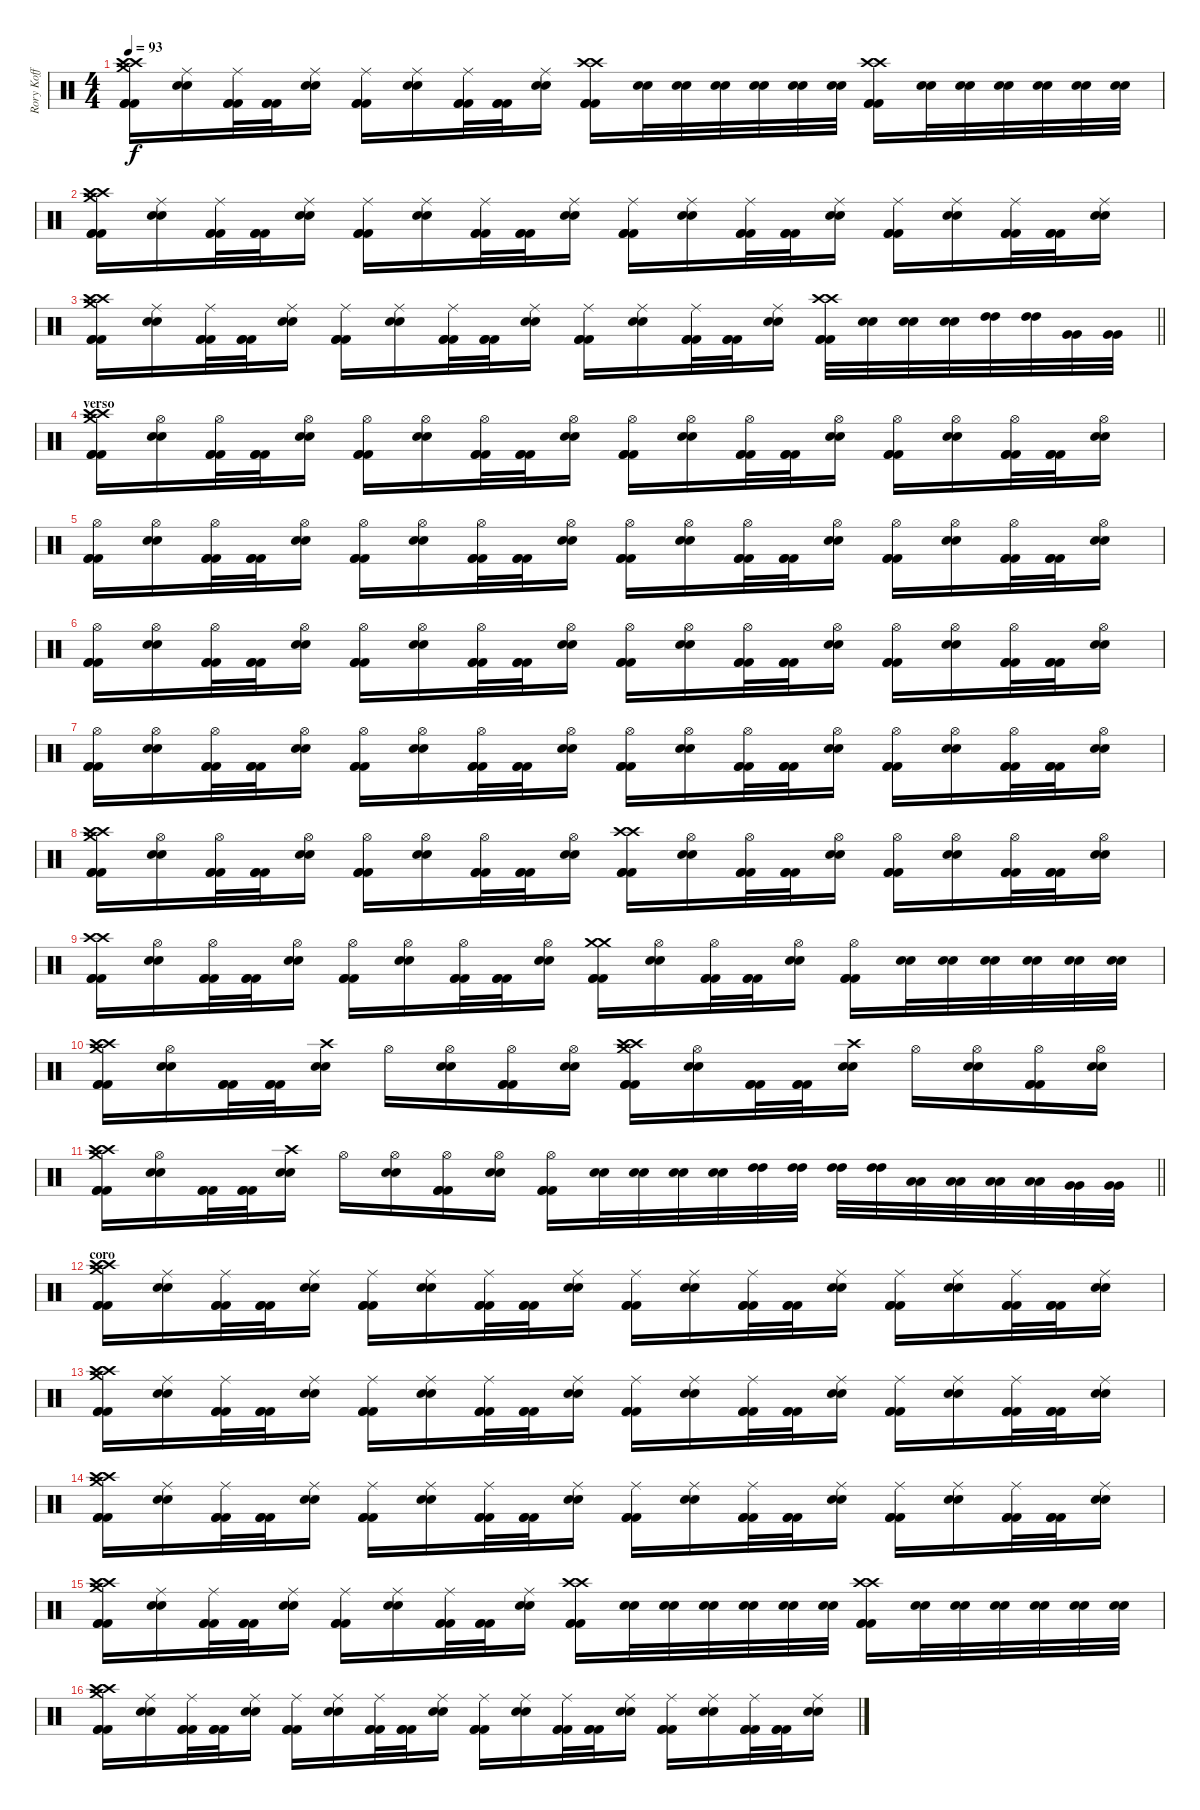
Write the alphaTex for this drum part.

\track ("Rory Koff" "Rory Koff") {instrument percussion}
\staff {score}
\articulation defaults
\ts (4 4)
\tempo 93
\clef neutral
\ks c
("Crash high (hit)" "Crash medium (hit)" "Crash high (hit)" "Kick (hit) 2" "Kick (hit) 2" "Kick (hit) 2").16{dy f} ("Ride (middle)" "Electric Snare (hit)" "Electric Snare (hit)").16 ("Ride (middle)" "Kick (hit) 2" "Kick (hit) 2" "Kick (hit) 2").32 ("Kick (hit) 2" "Kick (hit) 2" "Kick (hit) 2").32 ("Ride (middle)" "Electric Snare (hit)" "Electric Snare (hit)").16 ("Ride (middle)" "Kick (hit) 2" "Kick (hit) 2" "Kick (hit) 2").16 ("Ride (middle)" "Electric Snare (hit)" "Electric Snare (hit)").16 ("Ride (middle)" "Kick (hit) 2" "Kick (hit) 2" "Kick (hit) 2").32 ("Kick (hit) 2" "Kick (hit) 2" "Kick (hit) 2").32 ("Ride (middle)" "Electric Snare (hit)" "Electric Snare (hit)").16 ("Crash high (hit)" "Crash high (hit)" "Kick (hit) 2" "Kick (hit) 2" "Kick (hit) 2").16 ("Electric Snare (hit)" "Electric Snare (hit)").32 ("Electric Snare (hit)" "Electric Snare (hit)").32 ("Electric Snare (hit)" "Electric Snare (hit)").32 ("Electric Snare (hit)" "Electric Snare (hit)").32 ("Electric Snare (hit)" "Electric Snare (hit)").32 ("Electric Snare (hit)" "Electric Snare (hit)").32 ("Crash high (hit)" "Crash high (hit)" "Kick (hit) 2" "Kick (hit) 2" "Kick (hit) 2").16 ("Electric Snare (hit)" "Electric Snare (hit)").32 ("Electric Snare (hit)" "Electric Snare (hit)").32 ("Electric Snare (hit)" "Electric Snare (hit)").32 ("Electric Snare (hit)" "Electric Snare (hit)").32 ("Electric Snare (hit)" "Electric Snare (hit)").32 ("Electric Snare (hit)" "Electric Snare (hit)").32 |
("Crash high (hit)" "Crash medium (hit)" "Crash high (hit)" "Kick (hit) 2" "Kick (hit) 2" "Kick (hit) 2").16 ("Ride (middle)" "Electric Snare (hit)" "Electric Snare (hit)").16 ("Ride (middle)" "Kick (hit) 2" "Kick (hit) 2" "Kick (hit) 2").32 ("Kick (hit) 2" "Kick (hit) 2" "Kick (hit) 2").32 ("Ride (middle)" "Electric Snare (hit)" "Electric Snare (hit)").16 ("Ride (middle)" "Kick (hit) 2" "Kick (hit) 2" "Kick (hit) 2").16 ("Ride (middle)" "Electric Snare (hit)" "Electric Snare (hit)").16 ("Ride (middle)" "Kick (hit) 2" "Kick (hit) 2" "Kick (hit) 2").32 ("Kick (hit) 2" "Kick (hit) 2" "Kick (hit) 2").32 ("Ride (middle)" "Electric Snare (hit)" "Electric Snare (hit)").16 ("Ride (middle)" "Kick (hit) 2" "Kick (hit) 2" "Kick (hit) 2").16 ("Ride (middle)" "Electric Snare (hit)" "Electric Snare (hit)").16 ("Ride (middle)" "Kick (hit) 2" "Kick (hit) 2" "Kick (hit) 2").32 ("Kick (hit) 2" "Kick (hit) 2" "Kick (hit) 2").32 ("Ride (middle)" "Electric Snare (hit)" "Electric Snare (hit)").16 ("Ride (middle)" "Kick (hit) 2" "Kick (hit) 2" "Kick (hit) 2").16 ("Ride (middle)" "Electric Snare (hit)" "Electric Snare (hit)").16 ("Ride (middle)" "Kick (hit) 2" "Kick (hit) 2" "Kick (hit) 2").32 ("Kick (hit) 2" "Kick (hit) 2" "Kick (hit) 2").32 ("Ride (middle)" "Electric Snare (hit)" "Electric Snare (hit)").16 |
\barLineRight lightlight
("Crash high (hit)" "Crash medium (hit)" "Crash high (hit)" "Kick (hit) 2" "Kick (hit) 2" "Kick (hit) 2").16 ("Ride (middle)" "Electric Snare (hit)" "Electric Snare (hit)").16 ("Ride (middle)" "Kick (hit) 2" "Kick (hit) 2" "Kick (hit) 2").32 ("Kick (hit) 2" "Kick (hit) 2" "Kick (hit) 2").32 ("Ride (middle)" "Electric Snare (hit)" "Electric Snare (hit)").16 ("Ride (middle)" "Kick (hit) 2" "Kick (hit) 2" "Kick (hit) 2").16 ("Ride (middle)" "Electric Snare (hit)" "Electric Snare (hit)").16 ("Ride (middle)" "Kick (hit) 2" "Kick (hit) 2" "Kick (hit) 2").32 ("Kick (hit) 2" "Kick (hit) 2" "Kick (hit) 2").32 ("Ride (middle)" "Electric Snare (hit)" "Electric Snare (hit)").16 ("Ride (middle)" "Kick (hit) 2" "Kick (hit) 2" "Kick (hit) 2").16 ("Ride (middle)" "Electric Snare (hit)" "Electric Snare (hit)").16 ("Ride (middle)" "Kick (hit) 2" "Kick (hit) 2" "Kick (hit) 2").32 ("Kick (hit) 2" "Kick (hit) 2" "Kick (hit) 2").32 ("Ride (middle)" "Electric Snare (hit)" "Electric Snare (hit)").16 ("Crash high (hit)" "Crash high (hit)" "Kick (hit) 2" "Kick (hit) 2" "Kick (hit) 2").32 ("Electric Snare (hit)" "Electric Snare (hit)").32 ("Electric Snare (hit)" "Electric Snare (hit)").32 ("Electric Snare (hit)" "Electric Snare (hit)").32 ("High Tom (hit)" "High Tom (hit)").32 ("High Tom (hit)" "High Tom (hit)").32 ("Very Low Tom (hit)" "Very Low Tom (hit)").32 ("Very Low Tom (hit)" "Very Low Tom (hit)").32 |
\section ("" "verso ")
("Crash high (hit)" "Crash medium (hit)" "Crash high (hit)" "Kick (hit) 2" "Kick (hit) 2" "Kick (hit) 2").16 ("Hi-Hat (open)" "Electric Snare (hit)" "Electric Snare (hit)").16 ("Hi-Hat (open)" "Kick (hit) 2" "Kick (hit) 2" "Kick (hit) 2").32 ("Kick (hit) 2" "Kick (hit) 2" "Kick (hit) 2").32 ("Hi-Hat (open)" "Electric Snare (hit)" "Electric Snare (hit)").16 ("Hi-Hat (open)" "Kick (hit) 2" "Kick (hit) 2" "Kick (hit) 2").16 ("Hi-Hat (open)" "Electric Snare (hit)" "Electric Snare (hit)").16 ("Hi-Hat (open)" "Kick (hit) 2" "Kick (hit) 2" "Kick (hit) 2").32 ("Kick (hit) 2" "Kick (hit) 2" "Kick (hit) 2").32 ("Hi-Hat (open)" "Electric Snare (hit)" "Electric Snare (hit)").16 ("Hi-Hat (open)" "Kick (hit) 2" "Kick (hit) 2" "Kick (hit) 2").16 ("Hi-Hat (open)" "Electric Snare (hit)" "Electric Snare (hit)").16 ("Hi-Hat (open)" "Kick (hit) 2" "Kick (hit) 2" "Kick (hit) 2").32 ("Kick (hit) 2" "Kick (hit) 2" "Kick (hit) 2").32 ("Hi-Hat (open)" "Electric Snare (hit)" "Electric Snare (hit)").16 ("Hi-Hat (open)" "Kick (hit) 2" "Kick (hit) 2" "Kick (hit) 2").16 ("Hi-Hat (open)" "Electric Snare (hit)" "Electric Snare (hit)").16 ("Hi-Hat (open)" "Kick (hit) 2" "Kick (hit) 2" "Kick (hit) 2").32 ("Kick (hit) 2" "Kick (hit) 2" "Kick (hit) 2").32 ("Hi-Hat (open)" "Electric Snare (hit)" "Electric Snare (hit)").16 |
("Hi-Hat (open)" "Kick (hit) 2" "Kick (hit) 2" "Kick (hit) 2").16 ("Hi-Hat (open)" "Electric Snare (hit)" "Electric Snare (hit)").16 ("Hi-Hat (open)" "Kick (hit) 2" "Kick (hit) 2" "Kick (hit) 2").32 ("Kick (hit) 2" "Kick (hit) 2" "Kick (hit) 2").32 ("Hi-Hat (open)" "Electric Snare (hit)" "Electric Snare (hit)").16 ("Hi-Hat (open)" "Kick (hit) 2" "Kick (hit) 2" "Kick (hit) 2").16 ("Hi-Hat (open)" "Electric Snare (hit)" "Electric Snare (hit)").16 ("Hi-Hat (open)" "Kick (hit) 2" "Kick (hit) 2" "Kick (hit) 2").32 ("Kick (hit) 2" "Kick (hit) 2" "Kick (hit) 2").32 ("Hi-Hat (open)" "Electric Snare (hit)" "Electric Snare (hit)").16 ("Hi-Hat (open)" "Kick (hit) 2" "Kick (hit) 2" "Kick (hit) 2").16 ("Hi-Hat (open)" "Electric Snare (hit)" "Electric Snare (hit)").16 ("Hi-Hat (open)" "Kick (hit) 2" "Kick (hit) 2" "Kick (hit) 2").32 ("Kick (hit) 2" "Kick (hit) 2" "Kick (hit) 2").32 ("Hi-Hat (open)" "Electric Snare (hit)" "Electric Snare (hit)").16 ("Hi-Hat (open)" "Kick (hit) 2" "Kick (hit) 2" "Kick (hit) 2").16 ("Hi-Hat (open)" "Electric Snare (hit)" "Electric Snare (hit)").16 ("Hi-Hat (open)" "Kick (hit) 2" "Kick (hit) 2" "Kick (hit) 2").32 ("Kick (hit) 2" "Kick (hit) 2" "Kick (hit) 2").32 ("Hi-Hat (open)" "Electric Snare (hit)" "Electric Snare (hit)").16 |
("Hi-Hat (open)" "Kick (hit) 2" "Kick (hit) 2" "Kick (hit) 2").16 ("Hi-Hat (open)" "Electric Snare (hit)" "Electric Snare (hit)").16 ("Hi-Hat (open)" "Kick (hit) 2" "Kick (hit) 2" "Kick (hit) 2").32 ("Kick (hit) 2" "Kick (hit) 2" "Kick (hit) 2").32 ("Hi-Hat (open)" "Electric Snare (hit)" "Electric Snare (hit)").16 ("Hi-Hat (open)" "Kick (hit) 2" "Kick (hit) 2" "Kick (hit) 2").16 ("Hi-Hat (open)" "Electric Snare (hit)" "Electric Snare (hit)").16 ("Hi-Hat (open)" "Kick (hit) 2" "Kick (hit) 2" "Kick (hit) 2").32 ("Kick (hit) 2" "Kick (hit) 2" "Kick (hit) 2").32 ("Hi-Hat (open)" "Electric Snare (hit)" "Electric Snare (hit)").16 ("Hi-Hat (open)" "Kick (hit) 2" "Kick (hit) 2" "Kick (hit) 2").16 ("Hi-Hat (open)" "Electric Snare (hit)" "Electric Snare (hit)").16 ("Hi-Hat (open)" "Kick (hit) 2" "Kick (hit) 2" "Kick (hit) 2").32 ("Kick (hit) 2" "Kick (hit) 2" "Kick (hit) 2").32 ("Hi-Hat (open)" "Electric Snare (hit)" "Electric Snare (hit)").16 ("Hi-Hat (open)" "Kick (hit) 2" "Kick (hit) 2" "Kick (hit) 2").16 ("Hi-Hat (open)" "Electric Snare (hit)" "Electric Snare (hit)").16 ("Hi-Hat (open)" "Kick (hit) 2" "Kick (hit) 2" "Kick (hit) 2").32 ("Kick (hit) 2" "Kick (hit) 2" "Kick (hit) 2").32 ("Hi-Hat (open)" "Electric Snare (hit)" "Electric Snare (hit)").16 |
("Hi-Hat (open)" "Kick (hit) 2" "Kick (hit) 2" "Kick (hit) 2").16 ("Hi-Hat (open)" "Electric Snare (hit)" "Electric Snare (hit)").16 ("Hi-Hat (open)" "Kick (hit) 2" "Kick (hit) 2" "Kick (hit) 2").32 ("Kick (hit) 2" "Kick (hit) 2" "Kick (hit) 2").32 ("Hi-Hat (open)" "Electric Snare (hit)" "Electric Snare (hit)").16 ("Hi-Hat (open)" "Kick (hit) 2" "Kick (hit) 2" "Kick (hit) 2").16 ("Hi-Hat (open)" "Electric Snare (hit)" "Electric Snare (hit)").16 ("Hi-Hat (open)" "Kick (hit) 2" "Kick (hit) 2" "Kick (hit) 2").32 ("Kick (hit) 2" "Kick (hit) 2" "Kick (hit) 2").32 ("Hi-Hat (open)" "Electric Snare (hit)" "Electric Snare (hit)").16 ("Hi-Hat (open)" "Kick (hit) 2" "Kick (hit) 2" "Kick (hit) 2").16 ("Hi-Hat (open)" "Electric Snare (hit)" "Electric Snare (hit)").16 ("Hi-Hat (open)" "Kick (hit) 2" "Kick (hit) 2" "Kick (hit) 2").32 ("Kick (hit) 2" "Kick (hit) 2" "Kick (hit) 2").32 ("Hi-Hat (open)" "Electric Snare (hit)" "Electric Snare (hit)").16 ("Hi-Hat (open)" "Kick (hit) 2" "Kick (hit) 2" "Kick (hit) 2").16 ("Hi-Hat (open)" "Electric Snare (hit)" "Electric Snare (hit)").16 ("Hi-Hat (open)" "Kick (hit) 2" "Kick (hit) 2" "Kick (hit) 2").32 ("Kick (hit) 2" "Kick (hit) 2" "Kick (hit) 2").32 ("Hi-Hat (open)" "Electric Snare (hit)" "Electric Snare (hit)").16 |
("Crash medium (hit)" "Crash high (hit)" "Crash high (hit)" "Kick (hit) 2" "Kick (hit) 2" "Kick (hit) 2").16 ("Hi-Hat (open)" "Electric Snare (hit)" "Electric Snare (hit)").16 ("Hi-Hat (open)" "Kick (hit) 2" "Kick (hit) 2" "Kick (hit) 2").32 ("Kick (hit) 2" "Kick (hit) 2" "Kick (hit) 2").32 ("Hi-Hat (open)" "Electric Snare (hit)" "Electric Snare (hit)").16 ("Hi-Hat (open)" "Kick (hit) 2" "Kick (hit) 2" "Kick (hit) 2").16 ("Hi-Hat (open)" "Electric Snare (hit)" "Electric Snare (hit)").16 ("Hi-Hat (open)" "Kick (hit) 2" "Kick (hit) 2" "Kick (hit) 2").32 ("Kick (hit) 2" "Kick (hit) 2" "Kick (hit) 2").32 ("Hi-Hat (open)" "Electric Snare (hit)" "Electric Snare (hit)").16 ("Crash high (hit)" "Crash high (hit)" "Kick (hit) 2" "Kick (hit) 2" "Kick (hit) 2").16 ("Hi-Hat (open)" "Electric Snare (hit)" "Electric Snare (hit)").16 ("Hi-Hat (open)" "Kick (hit) 2" "Kick (hit) 2" "Kick (hit) 2").32 ("Kick (hit) 2" "Kick (hit) 2" "Kick (hit) 2").32 ("Hi-Hat (open)" "Electric Snare (hit)" "Electric Snare (hit)").16 ("Hi-Hat (open)" "Kick (hit) 2" "Kick (hit) 2" "Kick (hit) 2").16 ("Hi-Hat (open)" "Electric Snare (hit)" "Electric Snare (hit)").16 ("Hi-Hat (open)" "Kick (hit) 2" "Kick (hit) 2" "Kick (hit) 2").32 ("Kick (hit) 2" "Kick (hit) 2" "Kick (hit) 2").32 ("Hi-Hat (open)" "Electric Snare (hit)" "Electric Snare (hit)").16 |
("Crash high (hit)" "Crash high (hit)" "Kick (hit) 2" "Kick (hit) 2" "Kick (hit) 2").16 ("Hi-Hat (open)" "Electric Snare (hit)" "Electric Snare (hit)").16 ("Hi-Hat (open)" "Kick (hit) 2" "Kick (hit) 2" "Kick (hit) 2").32 ("Kick (hit) 2" "Kick (hit) 2" "Kick (hit) 2").32 ("Hi-Hat (open)" "Electric Snare (hit)" "Electric Snare (hit)").16 ("Hi-Hat (open)" "Kick (hit) 2" "Kick (hit) 2" "Kick (hit) 2").16 ("Hi-Hat (open)" "Electric Snare (hit)" "Electric Snare (hit)").16 ("Hi-Hat (open)" "Kick (hit) 2" "Kick (hit) 2" "Kick (hit) 2").32 ("Kick (hit) 2" "Kick (hit) 2" "Kick (hit) 2").32 ("Hi-Hat (open)" "Electric Snare (hit)" "Electric Snare (hit)").16 ("Crash medium (hit)" "Crash medium (hit)" "Kick (hit) 2" "Kick (hit) 2" "Kick (hit) 2").16 ("Hi-Hat (open)" "Electric Snare (hit)" "Electric Snare (hit)").16 ("Hi-Hat (open)" "Kick (hit) 2" "Kick (hit) 2" "Kick (hit) 2").32 ("Kick (hit) 2" "Kick (hit) 2" "Kick (hit) 2").32 ("Hi-Hat (open)" "Electric Snare (hit)" "Electric Snare (hit)").16 ("Hi-Hat (open)" "Kick (hit) 2" "Kick (hit) 2" "Kick (hit) 2").16 ("Electric Snare (hit)" "Electric Snare (hit)").32 ("Electric Snare (hit)" "Electric Snare (hit)").32 ("Electric Snare (hit)" "Electric Snare (hit)").32 ("Electric Snare (hit)" "Electric Snare (hit)").32 ("Electric Snare (hit)" "Electric Snare (hit)").32 ("Electric Snare (hit)" "Electric Snare (hit)").32 |
("Crash high (hit)" "Crash medium (hit)" "Crash high (hit)" "Kick (hit) 2" "Kick (hit) 2" "Kick (hit) 2").16 ("Hi-Hat (open)" "Electric Snare (hit)" "Electric Snare (hit)").16 ("Kick (hit) 2" "Kick (hit) 2" "Kick (hit) 2").32 ("Kick (hit) 2" "Kick (hit) 2" "Kick (hit) 2").32 ("Crash high (hit)" "Electric Snare (hit)" "Electric Snare (hit)").16 "Hi-Hat (open)".16 ("Hi-Hat (open)" "Electric Snare (hit)" "Electric Snare (hit)").16 ("Hi-Hat (open)" "Kick (hit) 2" "Kick (hit) 2" "Kick (hit) 2").16 ("Hi-Hat (open)" "Electric Snare (hit)" "Electric Snare (hit)").16 ("Crash high (hit)" "Crash medium (hit)" "Crash high (hit)" "Kick (hit) 2" "Kick (hit) 2" "Kick (hit) 2").16 ("Hi-Hat (open)" "Electric Snare (hit)" "Electric Snare (hit)").16 ("Kick (hit) 2" "Kick (hit) 2" "Kick (hit) 2").32 ("Kick (hit) 2" "Kick (hit) 2" "Kick (hit) 2").32 ("Crash high (hit)" "Electric Snare (hit)" "Electric Snare (hit)").16 "Hi-Hat (open)".16 ("Hi-Hat (open)" "Electric Snare (hit)" "Electric Snare (hit)").16 ("Hi-Hat (open)" "Kick (hit) 2" "Kick (hit) 2" "Kick (hit) 2").16 ("Hi-Hat (open)" "Electric Snare (hit)" "Electric Snare (hit)").16 |
\barLineRight lightlight
("Crash high (hit)" "Crash medium (hit)" "Crash high (hit)" "Kick (hit) 2" "Kick (hit) 2" "Kick (hit) 2").16 ("Hi-Hat (open)" "Electric Snare (hit)" "Electric Snare (hit)").16 ("Kick (hit) 2" "Kick (hit) 2" "Kick (hit) 2").32 ("Kick (hit) 2" "Kick (hit) 2" "Kick (hit) 2").32 ("Crash high (hit)" "Electric Snare (hit)" "Electric Snare (hit)").16 "Hi-Hat (open)".16 ("Hi-Hat (open)" "Electric Snare (hit)" "Electric Snare (hit)").16 ("Hi-Hat (open)" "Kick (hit) 2" "Kick (hit) 2" "Kick (hit) 2").16 ("Hi-Hat (open)" "Electric Snare (hit)" "Electric Snare (hit)").16 ("Hi-Hat (open)" "Kick (hit) 2" "Kick (hit) 2" "Kick (hit) 2").16 ("Electric Snare (hit)" "Electric Snare (hit)").32 ("Electric Snare (hit)" "Electric Snare (hit)").32 ("Electric Snare (hit)" "Electric Snare (hit)").32 ("Electric Snare (hit)" "Electric Snare (hit)").32 ("High Tom (hit)" "High Tom (hit)").32 ("High Tom (hit)" "High Tom (hit)").32 ("High Tom (hit)" "High Tom (hit)").32 ("High Tom (hit)" "High Tom (hit)").32 ("Low Tom (hit)" "Low Tom (hit)").32 ("Low Tom (hit)" "Low Tom (hit)").32 ("Low Tom (hit)" "Low Tom (hit)").32 ("Low Tom (hit)" "Low Tom (hit)").32 ("Very Low Tom (hit)" "Very Low Tom (hit)").32 ("Very Low Tom (hit)" "Very Low Tom (hit)").32 |
\section ("" "coro")
("Crash high (hit)" "Crash medium (hit)" "Crash high (hit)" "Kick (hit) 2" "Kick (hit) 2" "Kick (hit) 2").16 ("Ride (middle)" "Electric Snare (hit)" "Electric Snare (hit)").16 ("Ride (middle)" "Kick (hit) 2" "Kick (hit) 2" "Kick (hit) 2").32 ("Kick (hit) 2" "Kick (hit) 2" "Kick (hit) 2").32 ("Ride (middle)" "Electric Snare (hit)" "Electric Snare (hit)").16 ("Ride (middle)" "Kick (hit) 2" "Kick (hit) 2" "Kick (hit) 2").16 ("Ride (middle)" "Electric Snare (hit)" "Electric Snare (hit)").16 ("Ride (middle)" "Kick (hit) 2" "Kick (hit) 2" "Kick (hit) 2").32 ("Kick (hit) 2" "Kick (hit) 2" "Kick (hit) 2").32 ("Ride (middle)" "Electric Snare (hit)" "Electric Snare (hit)").16 ("Ride (middle)" "Kick (hit) 2" "Kick (hit) 2" "Kick (hit) 2").16 ("Ride (middle)" "Electric Snare (hit)" "Electric Snare (hit)").16 ("Ride (middle)" "Kick (hit) 2" "Kick (hit) 2" "Kick (hit) 2").32 ("Kick (hit) 2" "Kick (hit) 2" "Kick (hit) 2").32 ("Ride (middle)" "Electric Snare (hit)" "Electric Snare (hit)").16 ("Ride (middle)" "Kick (hit) 2" "Kick (hit) 2" "Kick (hit) 2").16 ("Ride (middle)" "Electric Snare (hit)" "Electric Snare (hit)").16 ("Ride (middle)" "Kick (hit) 2" "Kick (hit) 2" "Kick (hit) 2").32 ("Kick (hit) 2" "Kick (hit) 2" "Kick (hit) 2").32 ("Ride (middle)" "Electric Snare (hit)" "Electric Snare (hit)").16 |
("Crash high (hit)" "Crash medium (hit)" "Crash high (hit)" "Kick (hit) 2" "Kick (hit) 2" "Kick (hit) 2").16 ("Ride (middle)" "Electric Snare (hit)" "Electric Snare (hit)").16 ("Ride (middle)" "Kick (hit) 2" "Kick (hit) 2" "Kick (hit) 2").32 ("Kick (hit) 2" "Kick (hit) 2" "Kick (hit) 2").32 ("Ride (middle)" "Electric Snare (hit)" "Electric Snare (hit)").16 ("Ride (middle)" "Kick (hit) 2" "Kick (hit) 2" "Kick (hit) 2").16 ("Ride (middle)" "Electric Snare (hit)" "Electric Snare (hit)").16 ("Ride (middle)" "Kick (hit) 2" "Kick (hit) 2" "Kick (hit) 2").32 ("Kick (hit) 2" "Kick (hit) 2" "Kick (hit) 2").32 ("Ride (middle)" "Electric Snare (hit)" "Electric Snare (hit)").16 ("Ride (middle)" "Kick (hit) 2" "Kick (hit) 2" "Kick (hit) 2").16 ("Ride (middle)" "Electric Snare (hit)" "Electric Snare (hit)").16 ("Ride (middle)" "Kick (hit) 2" "Kick (hit) 2" "Kick (hit) 2").32 ("Kick (hit) 2" "Kick (hit) 2" "Kick (hit) 2").32 ("Ride (middle)" "Electric Snare (hit)" "Electric Snare (hit)").16 ("Ride (middle)" "Kick (hit) 2" "Kick (hit) 2" "Kick (hit) 2").16 ("Ride (middle)" "Electric Snare (hit)" "Electric Snare (hit)").16 ("Ride (middle)" "Kick (hit) 2" "Kick (hit) 2" "Kick (hit) 2").32 ("Kick (hit) 2" "Kick (hit) 2" "Kick (hit) 2").32 ("Ride (middle)" "Electric Snare (hit)" "Electric Snare (hit)").16 |
("Crash high (hit)" "Crash medium (hit)" "Crash high (hit)" "Kick (hit) 2" "Kick (hit) 2" "Kick (hit) 2").16 ("Ride (middle)" "Electric Snare (hit)" "Electric Snare (hit)").16 ("Ride (middle)" "Kick (hit) 2" "Kick (hit) 2" "Kick (hit) 2").32 ("Kick (hit) 2" "Kick (hit) 2" "Kick (hit) 2").32 ("Ride (middle)" "Electric Snare (hit)" "Electric Snare (hit)").16 ("Ride (middle)" "Kick (hit) 2" "Kick (hit) 2" "Kick (hit) 2").16 ("Ride (middle)" "Electric Snare (hit)" "Electric Snare (hit)").16 ("Ride (middle)" "Kick (hit) 2" "Kick (hit) 2" "Kick (hit) 2").32 ("Kick (hit) 2" "Kick (hit) 2" "Kick (hit) 2").32 ("Ride (middle)" "Electric Snare (hit)" "Electric Snare (hit)").16 ("Ride (middle)" "Kick (hit) 2" "Kick (hit) 2" "Kick (hit) 2").16 ("Ride (middle)" "Electric Snare (hit)" "Electric Snare (hit)").16 ("Ride (middle)" "Kick (hit) 2" "Kick (hit) 2" "Kick (hit) 2").32 ("Kick (hit) 2" "Kick (hit) 2" "Kick (hit) 2").32 ("Ride (middle)" "Electric Snare (hit)" "Electric Snare (hit)").16 ("Ride (middle)" "Kick (hit) 2" "Kick (hit) 2" "Kick (hit) 2").16 ("Ride (middle)" "Electric Snare (hit)" "Electric Snare (hit)").16 ("Ride (middle)" "Kick (hit) 2" "Kick (hit) 2" "Kick (hit) 2").32 ("Kick (hit) 2" "Kick (hit) 2" "Kick (hit) 2").32 ("Ride (middle)" "Electric Snare (hit)" "Electric Snare (hit)").16 |
("Crash high (hit)" "Crash medium (hit)" "Crash high (hit)" "Kick (hit) 2" "Kick (hit) 2" "Kick (hit) 2").16 ("Ride (middle)" "Electric Snare (hit)" "Electric Snare (hit)").16 ("Ride (middle)" "Kick (hit) 2" "Kick (hit) 2" "Kick (hit) 2").32 ("Kick (hit) 2" "Kick (hit) 2" "Kick (hit) 2").32 ("Ride (middle)" "Electric Snare (hit)" "Electric Snare (hit)").16 ("Ride (middle)" "Kick (hit) 2" "Kick (hit) 2" "Kick (hit) 2").16 ("Ride (middle)" "Electric Snare (hit)" "Electric Snare (hit)").16 ("Ride (middle)" "Kick (hit) 2" "Kick (hit) 2" "Kick (hit) 2").32 ("Kick (hit) 2" "Kick (hit) 2" "Kick (hit) 2").32 ("Ride (middle)" "Electric Snare (hit)" "Electric Snare (hit)").16 ("Crash high (hit)" "Crash high (hit)" "Kick (hit) 2" "Kick (hit) 2" "Kick (hit) 2").16 ("Electric Snare (hit)" "Electric Snare (hit)").32 ("Electric Snare (hit)" "Electric Snare (hit)").32 ("Electric Snare (hit)" "Electric Snare (hit)").32 ("Electric Snare (hit)" "Electric Snare (hit)").32 ("Electric Snare (hit)" "Electric Snare (hit)").32 ("Electric Snare (hit)" "Electric Snare (hit)").32 ("Crash high (hit)" "Crash high (hit)" "Kick (hit) 2" "Kick (hit) 2" "Kick (hit) 2").16 ("Electric Snare (hit)" "Electric Snare (hit)").32 ("Electric Snare (hit)" "Electric Snare (hit)").32 ("Electric Snare (hit)" "Electric Snare (hit)").32 ("Electric Snare (hit)" "Electric Snare (hit)").32 ("Electric Snare (hit)" "Electric Snare (hit)").32 ("Electric Snare (hit)" "Electric Snare (hit)").32 |
("Crash high (hit)" "Crash medium (hit)" "Crash high (hit)" "Kick (hit) 2" "Kick (hit) 2" "Kick (hit) 2").16 ("Ride (middle)" "Electric Snare (hit)" "Electric Snare (hit)").16 ("Ride (middle)" "Kick (hit) 2" "Kick (hit) 2" "Kick (hit) 2").32 ("Kick (hit) 2" "Kick (hit) 2" "Kick (hit) 2").32 ("Ride (middle)" "Electric Snare (hit)" "Electric Snare (hit)").16 ("Ride (middle)" "Kick (hit) 2" "Kick (hit) 2" "Kick (hit) 2").16 ("Ride (middle)" "Electric Snare (hit)" "Electric Snare (hit)").16 ("Ride (middle)" "Kick (hit) 2" "Kick (hit) 2" "Kick (hit) 2").32 ("Kick (hit) 2" "Kick (hit) 2" "Kick (hit) 2").32 ("Ride (middle)" "Electric Snare (hit)" "Electric Snare (hit)").16 ("Ride (middle)" "Kick (hit) 2" "Kick (hit) 2" "Kick (hit) 2").16 ("Ride (middle)" "Electric Snare (hit)" "Electric Snare (hit)").16 ("Ride (middle)" "Kick (hit) 2" "Kick (hit) 2" "Kick (hit) 2").32 ("Kick (hit) 2" "Kick (hit) 2" "Kick (hit) 2").32 ("Ride (middle)" "Electric Snare (hit)" "Electric Snare (hit)").16 ("Ride (middle)" "Kick (hit) 2" "Kick (hit) 2" "Kick (hit) 2").16 ("Ride (middle)" "Electric Snare (hit)" "Electric Snare (hit)").16 ("Ride (middle)" "Kick (hit) 2" "Kick (hit) 2" "Kick (hit) 2").32 ("Kick (hit) 2" "Kick (hit) 2" "Kick (hit) 2").32 ("Ride (middle)" "Electric Snare (hit)" "Electric Snare (hit)").16
